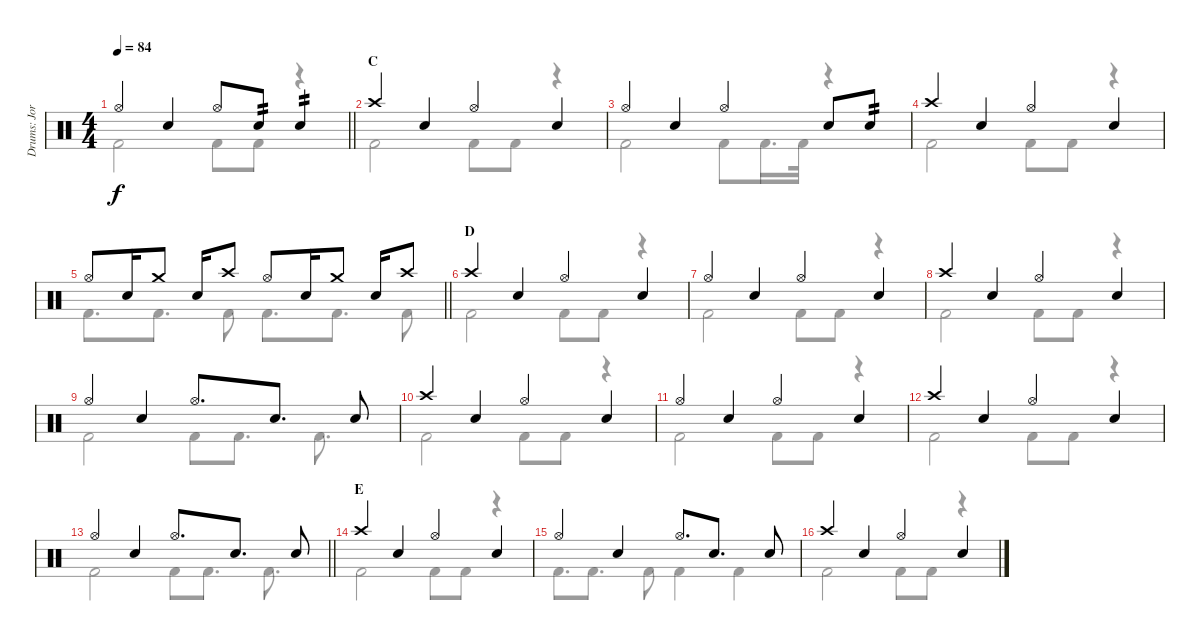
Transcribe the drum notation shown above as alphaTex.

\track ("Drums: Jorg" "Drums: Jor") {instrument percussion}
\staff {score}
\articulation defaults
\voice
\ts (4 4)
\tempo 84
\clef neutral
\barLineRight lightlight
\ks c "Hi-Hat (open)".4{dy f} "Snare (hit) 2".4 "Hi-Hat (open)".8 "Snare (hit) 2".8{tp 2} "Snare (hit) 2".4{tp 2}
|
\section ("" "C")
"Crash high (hit)".4 "Snare (hit) 2".4 "Hi-Hat (open)".4 "Snare (hit) 2".4 |
"Hi-Hat (open)".4 "Snare (hit) 2".4 "Hi-Hat (open)".4 "Snare (hit) 2".8 "Electric Snare (hit)".8{tp 2} |
"Crash high (hit)".4 "Snare (hit) 2".4 "Hi-Hat (open)".4 "Snare (hit) 2".4 |
\barLineRight lightlight "Hi-Hat (open)".8 "Snare (hit) 2".16 "Crash medium (hit)".8 "Snare (hit) 2".16 "Crash high (hit)".8 "Hi-Hat (open)".8 "Snare (hit) 2".16 "Crash medium (hit)".8 "Snare (hit) 2".16 "Crash high (hit)".8
|
\section ("" "D")
"Crash high (hit)".4 "Snare (hit) 2".4 "Hi-Hat (open)".4 "Snare (hit) 2".4 |
"Hi-Hat (open)".4 "Snare (hit) 2".4 "Hi-Hat (open)".4 "Snare (hit) 2".4 |
"Crash high (hit)".4 "Snare (hit) 2".4 "Hi-Hat (open)".4 "Snare (hit) 2".4 |
"Hi-Hat (open)".4 "Snare (hit) 2".4 "Hi-Hat (open)".8{d} "Snare (hit) 2".8{d} "Snare (hit) 2".8 |
"Crash high (hit)".4 "Snare (hit) 2".4 "Hi-Hat (open)".4 "Snare (hit) 2".4 |
"Hi-Hat (open)".4 "Snare (hit) 2".4 "Hi-Hat (open)".4 "Snare (hit) 2".4 |
"Crash high (hit)".4 "Snare (hit) 2".4 "Hi-Hat (open)".4 "Snare (hit) 2".4 |
\barLineRight lightlight "Hi-Hat (open)".4 "Snare (hit) 2".4 "Hi-Hat (open)".8{d} "Snare (hit) 2".8{d} "Snare (hit) 2".8
|
\section ("" "E")
"Crash high (hit)".4 "Snare (hit) 2".4 "Hi-Hat (open)".4 "Snare (hit) 2".4 |
"Hi-Hat (open)".4 "Snare (hit) 2".4 "Hi-Hat (open)".8{d} "Snare (hit) 2".8{d} "Snare (hit) 2".8 |
"Crash high (hit)".4 "Snare (hit) 2".4 "Hi-Hat (open)".4 "Snare (hit) 2".4
\voice
\clef neutral
\ottava regular
\simile none
\barLineRight lightlight
\ks c "Kick (hit) 2".2{dy f} "Kick (hit) 2".8 "Kick (hit) 2".8
r.4 |
"Kick (hit) 2".2 "Kick (hit) 2".8 "Kick (hit) 2".8 r.4 |
"Kick (hit) 2".2 "Kick (hit) 2".8 "Kick (hit) 2".16{d} "Kick (hit) 2".32 r.4 |
"Kick (hit) 2".2 "Kick (hit) 2".8 "Kick (hit) 2".8 r.4 |
\barLineRight lightlight "Kick (hit) 2".8{d} "Kick (hit) 2".8{d} "Kick (hit) 2".8 "Kick (hit) 2".8{d} "Kick (hit) 2".8{d} "Kick (hit) 2".8
|
"Kick (hit) 2".2 "Kick (hit) 2".8 "Kick (hit) 2".8 r.4 |
"Kick (hit) 2".2 "Kick (hit) 2".8 "Kick (hit) 2".8 r.4 |
"Kick (hit) 2".2 "Kick (hit) 2".8 "Kick (hit) 2".8 r.4 |
"Kick (hit) 2".2 "Kick (hit) 2".8 "Kick (hit) 2".8{d} "Kick (hit) 2".8{d} |
"Kick (hit) 2".2 "Kick (hit) 2".8 "Kick (hit) 2".8 r.4 |
"Kick (hit) 2".2 "Kick (hit) 2".8 "Kick (hit) 2".8 r.4 |
"Kick (hit) 2".2 "Kick (hit) 2".8 "Kick (hit) 2".8 r.4 |
\barLineRight lightlight "Kick (hit) 2".2 "Kick (hit) 2".8 "Kick (hit) 2".8{d} "Kick (hit) 2".8{d}
|
"Kick (hit) 2".2 "Kick (hit) 2".8 "Kick (hit) 2".8 r.4 |
"Kick (hit) 2".8{d} "Kick (hit) 2".8{d} "Kick (hit) 2".8 "Kick (hit) 2".4 "Kick (hit) 2".4 |
"Kick (hit) 2".2 "Kick (hit) 2".8 "Kick (hit) 2".8 r.4
